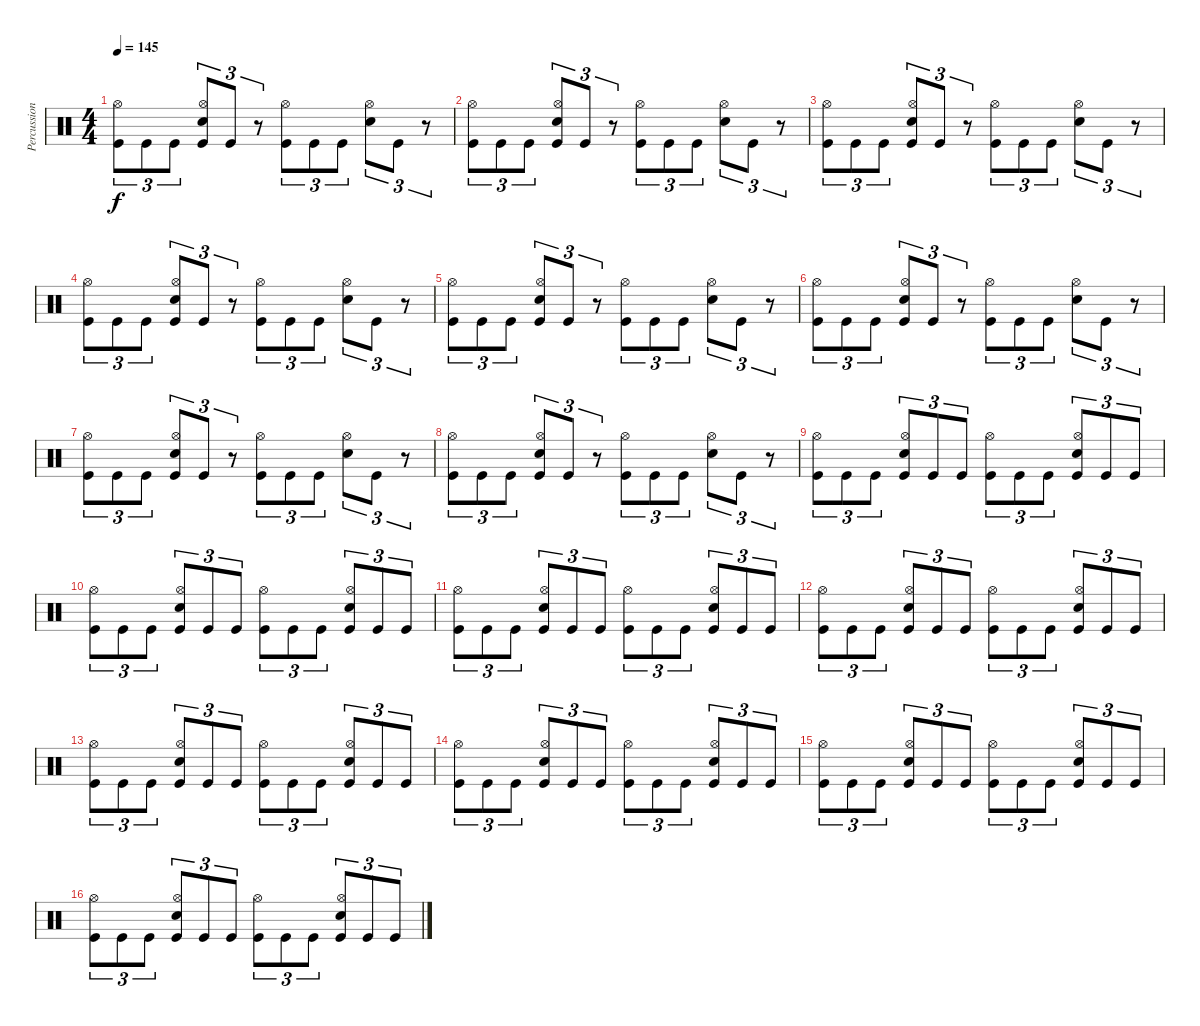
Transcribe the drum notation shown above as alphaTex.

\track ("Percussions" "Percussion") {instrument percussion}
\staff {score}
\articulation defaults
\ts (4 4)
\tempo 145
\clef neutral
\ks c
("Kick (hit)" "Hi-Hat (open)").8{tu (3 2) dy f} "Kick (hit)".8{tu (3 2)} "Kick (hit)".8{tu (3 2)} ("Kick (hit)" "Electric Snare (hit)" "Hi-Hat (open)").8{tu (3 2)} "Kick (hit)".8{tu (3 2)} r.8{tu (3 2)} ("Kick (hit)" "Hi-Hat (open)").8{tu (3 2)} "Kick (hit)".8{tu (3 2)} "Kick (hit)".8{tu (3 2)} ("Electric Snare (hit)" "Hi-Hat (open)").8{tu (3 2)} "Kick (hit)".8{tu (3 2)} r.8{tu (3 2)} |
("Kick (hit)" "Hi-Hat (open)").8{tu (3 2)} "Kick (hit)".8{tu (3 2)} "Kick (hit)".8{tu (3 2)} ("Kick (hit)" "Electric Snare (hit)" "Hi-Hat (open)").8{tu (3 2)} "Kick (hit)".8{tu (3 2)} r.8{tu (3 2)} ("Kick (hit)" "Hi-Hat (open)").8{tu (3 2)} "Kick (hit)".8{tu (3 2)} "Kick (hit)".8{tu (3 2)} ("Electric Snare (hit)" "Hi-Hat (open)").8{tu (3 2)} "Kick (hit)".8{tu (3 2)} r.8{tu (3 2)} |
("Kick (hit)" "Hi-Hat (open)").8{tu (3 2)} "Kick (hit)".8{tu (3 2)} "Kick (hit)".8{tu (3 2)} ("Kick (hit)" "Electric Snare (hit)" "Hi-Hat (open)").8{tu (3 2)} "Kick (hit)".8{tu (3 2)} r.8{tu (3 2)} ("Kick (hit)" "Hi-Hat (open)").8{tu (3 2)} "Kick (hit)".8{tu (3 2)} "Kick (hit)".8{tu (3 2)} ("Electric Snare (hit)" "Hi-Hat (open)").8{tu (3 2)} "Kick (hit)".8{tu (3 2)} r.8{tu (3 2)} |
("Kick (hit)" "Hi-Hat (open)").8{tu (3 2)} "Kick (hit)".8{tu (3 2)} "Kick (hit)".8{tu (3 2)} ("Kick (hit)" "Electric Snare (hit)" "Hi-Hat (open)").8{tu (3 2)} "Kick (hit)".8{tu (3 2)} r.8{tu (3 2)} ("Kick (hit)" "Hi-Hat (open)").8{tu (3 2)} "Kick (hit)".8{tu (3 2)} "Kick (hit)".8{tu (3 2)} ("Electric Snare (hit)" "Hi-Hat (open)").8{tu (3 2)} "Kick (hit)".8{tu (3 2)} r.8{tu (3 2)} |
("Kick (hit)" "Hi-Hat (open)").8{tu (3 2)} "Kick (hit)".8{tu (3 2)} "Kick (hit)".8{tu (3 2)} ("Kick (hit)" "Electric Snare (hit)" "Hi-Hat (open)").8{tu (3 2)} "Kick (hit)".8{tu (3 2)} r.8{tu (3 2)} ("Kick (hit)" "Hi-Hat (open)").8{tu (3 2)} "Kick (hit)".8{tu (3 2)} "Kick (hit)".8{tu (3 2)} ("Electric Snare (hit)" "Hi-Hat (open)").8{tu (3 2)} "Kick (hit)".8{tu (3 2)} r.8{tu (3 2)} |
("Kick (hit)" "Hi-Hat (open)").8{tu (3 2)} "Kick (hit)".8{tu (3 2)} "Kick (hit)".8{tu (3 2)} ("Kick (hit)" "Electric Snare (hit)" "Hi-Hat (open)").8{tu (3 2)} "Kick (hit)".8{tu (3 2)} r.8{tu (3 2)} ("Kick (hit)" "Hi-Hat (open)").8{tu (3 2)} "Kick (hit)".8{tu (3 2)} "Kick (hit)".8{tu (3 2)} ("Electric Snare (hit)" "Hi-Hat (open)").8{tu (3 2)} "Kick (hit)".8{tu (3 2)} r.8{tu (3 2)} |
("Kick (hit)" "Hi-Hat (open)").8{tu (3 2)} "Kick (hit)".8{tu (3 2)} "Kick (hit)".8{tu (3 2)} ("Kick (hit)" "Electric Snare (hit)" "Hi-Hat (open)").8{tu (3 2)} "Kick (hit)".8{tu (3 2)} r.8{tu (3 2)} ("Kick (hit)" "Hi-Hat (open)").8{tu (3 2)} "Kick (hit)".8{tu (3 2)} "Kick (hit)".8{tu (3 2)} ("Electric Snare (hit)" "Hi-Hat (open)").8{tu (3 2)} "Kick (hit)".8{tu (3 2)} r.8{tu (3 2)} |
("Kick (hit)" "Hi-Hat (open)").8{tu (3 2)} "Kick (hit)".8{tu (3 2)} "Kick (hit)".8{tu (3 2)} ("Kick (hit)" "Electric Snare (hit)" "Hi-Hat (open)").8{tu (3 2)} "Kick (hit)".8{tu (3 2)} r.8{tu (3 2)} ("Kick (hit)" "Hi-Hat (open)").8{tu (3 2)} "Kick (hit)".8{tu (3 2)} "Kick (hit)".8{tu (3 2)} ("Electric Snare (hit)" "Hi-Hat (open)").8{tu (3 2)} "Kick (hit)".8{tu (3 2)} r.8{tu (3 2)} |
("Kick (hit)" "Hi-Hat (open)").8{tu (3 2)} "Kick (hit)".8{tu (3 2)} "Kick (hit)".8{tu (3 2)} ("Kick (hit)" "Electric Snare (hit)" "Hi-Hat (open)").8{tu (3 2)} "Kick (hit)".8{tu (3 2)} "Kick (hit)".8{tu (3 2)} ("Kick (hit)" "Hi-Hat (open)").8{tu (3 2)} "Kick (hit)".8{tu (3 2)} "Kick (hit)".8{tu (3 2)} ("Kick (hit)" "Electric Snare (hit)" "Hi-Hat (open)").8{tu (3 2)} "Kick (hit)".8{tu (3 2)} "Kick (hit)".8{tu (3 2)} |
("Kick (hit)" "Hi-Hat (open)").8{tu (3 2)} "Kick (hit)".8{tu (3 2)} "Kick (hit)".8{tu (3 2)} ("Kick (hit)" "Electric Snare (hit)" "Hi-Hat (open)").8{tu (3 2)} "Kick (hit)".8{tu (3 2)} "Kick (hit)".8{tu (3 2)} ("Kick (hit)" "Hi-Hat (open)").8{tu (3 2)} "Kick (hit)".8{tu (3 2)} "Kick (hit)".8{tu (3 2)} ("Kick (hit)" "Electric Snare (hit)" "Hi-Hat (open)").8{tu (3 2)} "Kick (hit)".8{tu (3 2)} "Kick (hit)".8{tu (3 2)} |
("Kick (hit)" "Hi-Hat (open)").8{tu (3 2)} "Kick (hit)".8{tu (3 2)} "Kick (hit)".8{tu (3 2)} ("Kick (hit)" "Electric Snare (hit)" "Hi-Hat (open)").8{tu (3 2)} "Kick (hit)".8{tu (3 2)} "Kick (hit)".8{tu (3 2)} ("Kick (hit)" "Hi-Hat (open)").8{tu (3 2)} "Kick (hit)".8{tu (3 2)} "Kick (hit)".8{tu (3 2)} ("Kick (hit)" "Electric Snare (hit)" "Hi-Hat (open)").8{tu (3 2)} "Kick (hit)".8{tu (3 2)} "Kick (hit)".8{tu (3 2)} |
("Kick (hit)" "Hi-Hat (open)").8{tu (3 2)} "Kick (hit)".8{tu (3 2)} "Kick (hit)".8{tu (3 2)} ("Kick (hit)" "Electric Snare (hit)" "Hi-Hat (open)").8{tu (3 2)} "Kick (hit)".8{tu (3 2)} "Kick (hit)".8{tu (3 2)} ("Kick (hit)" "Hi-Hat (open)").8{tu (3 2)} "Kick (hit)".8{tu (3 2)} "Kick (hit)".8{tu (3 2)} ("Kick (hit)" "Electric Snare (hit)" "Hi-Hat (open)").8{tu (3 2)} "Kick (hit)".8{tu (3 2)} "Kick (hit)".8{tu (3 2)} |
("Kick (hit)" "Hi-Hat (open)").8{tu (3 2)} "Kick (hit)".8{tu (3 2)} "Kick (hit)".8{tu (3 2)} ("Kick (hit)" "Electric Snare (hit)" "Hi-Hat (open)").8{tu (3 2)} "Kick (hit)".8{tu (3 2)} "Kick (hit)".8{tu (3 2)} ("Kick (hit)" "Hi-Hat (open)").8{tu (3 2)} "Kick (hit)".8{tu (3 2)} "Kick (hit)".8{tu (3 2)} ("Kick (hit)" "Electric Snare (hit)" "Hi-Hat (open)").8{tu (3 2)} "Kick (hit)".8{tu (3 2)} "Kick (hit)".8{tu (3 2)} |
("Kick (hit)" "Hi-Hat (open)").8{tu (3 2)} "Kick (hit)".8{tu (3 2)} "Kick (hit)".8{tu (3 2)} ("Kick (hit)" "Electric Snare (hit)" "Hi-Hat (open)").8{tu (3 2)} "Kick (hit)".8{tu (3 2)} "Kick (hit)".8{tu (3 2)} ("Kick (hit)" "Hi-Hat (open)").8{tu (3 2)} "Kick (hit)".8{tu (3 2)} "Kick (hit)".8{tu (3 2)} ("Kick (hit)" "Electric Snare (hit)" "Hi-Hat (open)").8{tu (3 2)} "Kick (hit)".8{tu (3 2)} "Kick (hit)".8{tu (3 2)} |
("Kick (hit)" "Hi-Hat (open)").8{tu (3 2)} "Kick (hit)".8{tu (3 2)} "Kick (hit)".8{tu (3 2)} ("Kick (hit)" "Electric Snare (hit)" "Hi-Hat (open)").8{tu (3 2)} "Kick (hit)".8{tu (3 2)} "Kick (hit)".8{tu (3 2)} ("Kick (hit)" "Hi-Hat (open)").8{tu (3 2)} "Kick (hit)".8{tu (3 2)} "Kick (hit)".8{tu (3 2)} ("Kick (hit)" "Electric Snare (hit)" "Hi-Hat (open)").8{tu (3 2)} "Kick (hit)".8{tu (3 2)} "Kick (hit)".8{tu (3 2)} |
("Kick (hit)" "Hi-Hat (open)").8{tu (3 2)} "Kick (hit)".8{tu (3 2)} "Kick (hit)".8{tu (3 2)} ("Kick (hit)" "Electric Snare (hit)" "Hi-Hat (open)").8{tu (3 2)} "Kick (hit)".8{tu (3 2)} "Kick (hit)".8{tu (3 2)} ("Kick (hit)" "Hi-Hat (open)").8{tu (3 2)} "Kick (hit)".8{tu (3 2)} "Kick (hit)".8{tu (3 2)} ("Kick (hit)" "Electric Snare (hit)" "Hi-Hat (open)").8{tu (3 2)} "Kick (hit)".8{tu (3 2)} "Kick (hit)".8{tu (3 2)}
